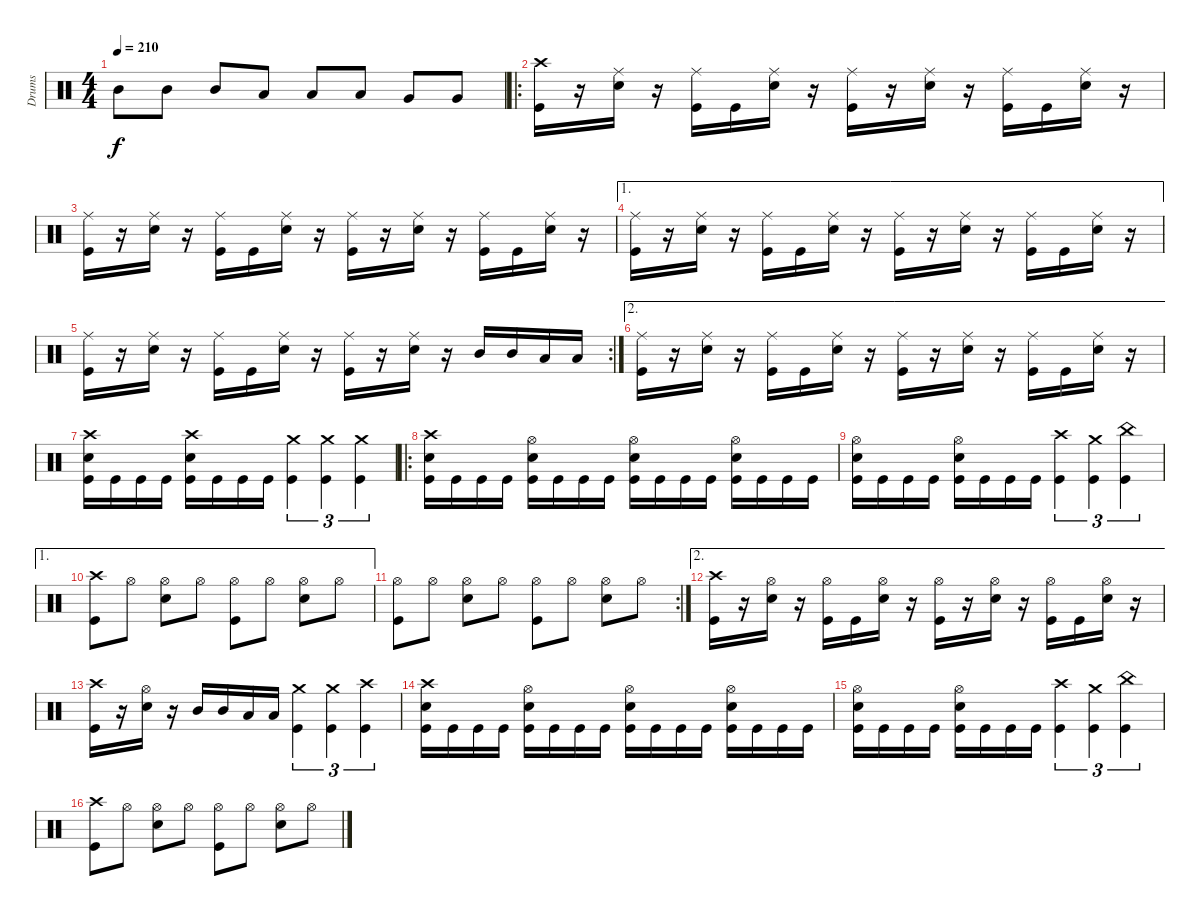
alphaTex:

\track ("Drums" "Drums") {instrument percussion}
\staff {score}
\articulation defaults
\ts (4 4)
\tempo 210
\clef neutral
\ks c "Mid Tom (hit)".8{dy f} "Mid Tom (hit)".8 "Mid Tom (hit)".8 "Low Tom (hit)".8 "Low Tom (hit)".8 "Low Tom (hit)".8 "Very Low Tom (hit)".8 "Very Low Tom (hit)".8
|
\ro
("Crash high (hit)" "Kick (hit)").16 r.16 ("Ride (middle)" "Snare (hit) 2").16 r.16 ("Ride (middle)" "Kick (hit)").16 "Kick (hit)".16 ("Ride (middle)" "Snare (hit) 2").16 r.16 ("Ride (middle)" "Kick (hit)").16 r.16 ("Ride (middle)" "Snare (hit) 2").16 r.16 ("Ride (middle)" "Kick (hit)").16 "Kick (hit)".16 ("Ride (middle)" "Snare (hit) 2").16 r.16 |
("Ride (middle)" "Kick (hit)").16 r.16 ("Ride (middle)" "Snare (hit) 2").16 r.16 ("Ride (middle)" "Kick (hit)").16 "Kick (hit)".16 ("Ride (middle)" "Snare (hit) 2").16 r.16 ("Ride (middle)" "Kick (hit)").16 r.16 ("Ride (middle)" "Snare (hit) 2").16 r.16 ("Ride (middle)" "Kick (hit)").16 "Kick (hit)".16 ("Ride (middle)" "Snare (hit) 2").16 r.16 |
\ae 1
("Ride (middle)" "Kick (hit)").16 r.16 ("Ride (middle)" "Snare (hit) 2").16 r.16 ("Ride (middle)" "Kick (hit)").16 "Kick (hit)".16 ("Ride (middle)" "Snare (hit) 2").16 r.16 ("Ride (middle)" "Kick (hit)").16 r.16 ("Ride (middle)" "Snare (hit) 2").16 r.16 ("Ride (middle)" "Kick (hit)").16 "Kick (hit)".16 ("Ride (middle)" "Snare (hit) 2").16 r.16 |
\rc 2
("Ride (middle)" "Kick (hit)").16 r.16 ("Ride (middle)" "Snare (hit) 2").16 r.16 ("Ride (middle)" "Kick (hit)").16 "Kick (hit)".16 ("Ride (middle)" "Snare (hit) 2").16 r.16 ("Ride (middle)" "Kick (hit)").16 r.16 ("Ride (middle)" "Snare (hit) 2").16 r.16 "Mid Tom (hit)".16 "Mid Tom (hit)".16 "Low Tom (hit)".16 "Low Tom (hit)".16 |
\ae 2
("Ride (middle)" "Kick (hit)").16 r.16 ("Ride (middle)" "Snare (hit) 2").16 r.16 ("Ride (middle)" "Kick (hit)").16 "Kick (hit)".16 ("Ride (middle)" "Snare (hit) 2").16 r.16 ("Ride (middle)" "Kick (hit)").16 r.16 ("Ride (middle)" "Snare (hit) 2").16 r.16 ("Ride (middle)" "Kick (hit)").16 "Kick (hit)".16 ("Ride (middle)" "Snare (hit) 2").16 r.16 |
("Crash high (hit)" "Snare (hit) 2" "Kick (hit)").16 "Kick (hit)".16 "Kick (hit)".16 "Kick (hit)".16 ("Crash high (hit)" "Snare (hit) 2" "Kick (hit)").16 "Kick (hit)".16 "Kick (hit)".16 "Kick (hit)".16 ("Crash medium (hit)" "Kick (hit)").4{tu (3 2)} ("Crash medium (hit)" "Kick (hit)").4{tu (3 2)} ("Crash medium (hit)" "Kick (hit)").4{tu (3 2)} |
\ro
("Crash high (hit)" "Snare (hit) 2" "Kick (hit)").16 "Kick (hit)".16 "Kick (hit)".16 "Kick (hit)".16 ("Hi-Hat (open)" "Snare (hit) 2" "Kick (hit)").16 "Kick (hit)".16 "Kick (hit)".16 "Kick (hit)".16 ("Hi-Hat (open)" "Snare (hit) 2" "Kick (hit)").16 "Kick (hit)".16 "Kick (hit)".16 "Kick (hit)".16 ("Hi-Hat (open)" "Snare (hit) 2" "Kick (hit)").16 "Kick (hit)".16 "Kick (hit)".16 "Kick (hit)".16 |
("Hi-Hat (open)" "Snare (hit) 2" "Kick (hit)").16 "Kick (hit)".16 "Kick (hit)".16 "Kick (hit)".16 ("Hi-Hat (open)" "Snare (hit) 2" "Kick (hit)").16 "Kick (hit)".16 "Kick (hit)".16 "Kick (hit)".16 ("Crash high (hit)" "Kick (hit)").4{tu (3 2)} ("Crash medium (hit)" "Kick (hit)").4{tu (3 2)} ("China (hit)" "Kick (hit)").4{tu (3 2)} |
\ae 1
("Crash high (hit)" "Kick (hit)").8 "Hi-Hat (open)".8 ("Hi-Hat (open)" "Snare (hit) 2").8 "Hi-Hat (open)".8 ("Hi-Hat (open)" "Kick (hit)").8 "Hi-Hat (open)".8 ("Hi-Hat (open)" "Snare (hit) 2").8 "Hi-Hat (open)".8 |
\rc 2
("Hi-Hat (open)" "Kick (hit)").8 "Hi-Hat (open)".8 ("Hi-Hat (open)" "Snare (hit) 2").8 "Hi-Hat (open)".8 ("Hi-Hat (open)" "Kick (hit)").8 "Hi-Hat (open)".8 ("Hi-Hat (open)" "Snare (hit) 2").8 "Hi-Hat (open)".8 |
\ae 2
("Crash high (hit)" "Kick (hit)").16 r.16 ("Hi-Hat (open)" "Snare (hit) 2").16 r.16 ("Hi-Hat (open)" "Kick (hit)").16 "Kick (hit)".16 ("Hi-Hat (open)" "Snare (hit) 2").16 r.16 ("Hi-Hat (open)" "Kick (hit)").16 r.16 ("Hi-Hat (open)" "Snare (hit) 2").16 r.16 ("Hi-Hat (open)" "Kick (hit)").16 "Kick (hit)".16 ("Hi-Hat (open)" "Snare (hit) 2").16 r.16 |
("Crash high (hit)" "Kick (hit)").16 r.16 ("Hi-Hat (open)" "Snare (hit) 2").16 r.16 "Mid Tom (hit)".16 "Mid Tom (hit)".16 "Low Tom (hit)".16 "Low Tom (hit)".16 ("Crash medium (hit)" "Kick (hit)").4{tu (3 2)} ("Crash medium (hit)" "Kick (hit)").4{tu (3 2)} ("Crash high (hit)" "Kick (hit)").4{tu (3 2)} |
("Crash high (hit)" "Snare (hit) 2" "Kick (hit)").16 "Kick (hit)".16 "Kick (hit)".16 "Kick (hit)".16 ("Hi-Hat (open)" "Snare (hit) 2" "Kick (hit)").16 "Kick (hit)".16 "Kick (hit)".16 "Kick (hit)".16 ("Hi-Hat (open)" "Snare (hit) 2" "Kick (hit)").16 "Kick (hit)".16 "Kick (hit)".16 "Kick (hit)".16 ("Hi-Hat (open)" "Snare (hit) 2" "Kick (hit)").16 "Kick (hit)".16 "Kick (hit)".16 "Kick (hit)".16 |
("Hi-Hat (open)" "Snare (hit) 2" "Kick (hit)").16 "Kick (hit)".16 "Kick (hit)".16 "Kick (hit)".16 ("Hi-Hat (open)" "Snare (hit) 2" "Kick (hit)").16 "Kick (hit)".16 "Kick (hit)".16 "Kick (hit)".16 ("Crash high (hit)" "Kick (hit)").4{tu (3 2)} ("Crash medium (hit)" "Kick (hit)").4{tu (3 2)} ("China (hit)" "Kick (hit)").4{tu (3 2)} |
("Crash high (hit)" "Kick (hit)").8 "Hi-Hat (open)".8 ("Hi-Hat (open)" "Snare (hit) 2").8 "Hi-Hat (open)".8 ("Hi-Hat (open)" "Kick (hit)").8 "Hi-Hat (open)".8 ("Hi-Hat (open)" "Snare (hit) 2").8 "Hi-Hat (open)".8
